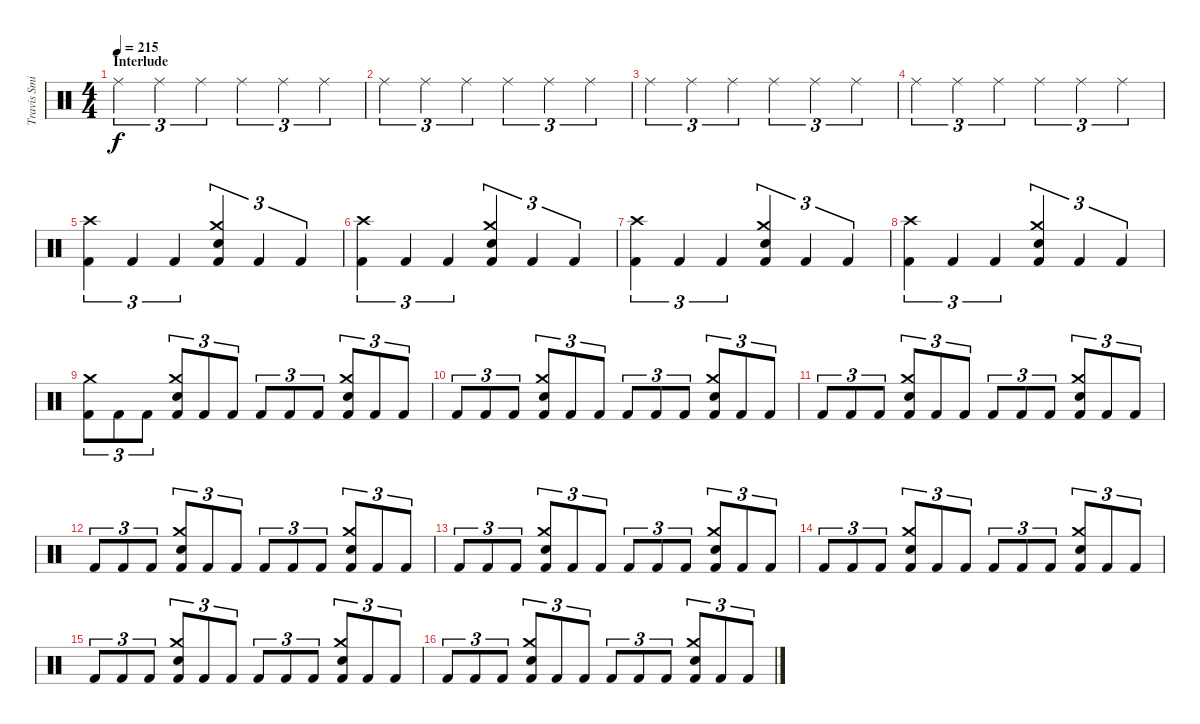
\track ("Travis Smith" "Travis Smi") {instrument percussion}
\staff {score}
\articulation defaults
\ts (4 4)
\section ("" "Interlude")
\tempo 215
\clef neutral
\ks c "Ride (middle)".4{tu (3 2) dy f} "Ride (middle)".4{tu (3 2)} "Ride (middle)".4{tu (3 2)} "Ride (middle)".4{tu (3 2)} "Ride (middle)".4{tu (3 2)} "Ride (middle)".4{tu (3 2)}
|
"Ride (middle)".4{tu (3 2)} "Ride (middle)".4{tu (3 2)} "Ride (middle)".4{tu (3 2)} "Ride (middle)".4{tu (3 2)} "Ride (middle)".4{tu (3 2)} "Ride (middle)".4{tu (3 2)} |
"Ride (middle)".4{tu (3 2)} "Ride (middle)".4{tu (3 2)} "Ride (middle)".4{tu (3 2)} "Ride (middle)".4{tu (3 2)} "Ride (middle)".4{tu (3 2)} "Ride (middle)".4{tu (3 2)} |
"Ride (middle)".4{tu (3 2)} "Ride (middle)".4{tu (3 2)} "Ride (middle)".4{tu (3 2)} "Ride (middle)".4{tu (3 2)} "Ride (middle)".4{tu (3 2)} "Ride (middle)".4{tu (3 2)} |
("Crash high (hit)" "Kick (hit) 2").4{tu (3 2)} "Kick (hit) 2".4{tu (3 2)} "Kick (hit) 2".4{tu (3 2)} ("Crash medium (hit)" "Electric Snare (hit)" "Kick (hit) 2").4{tu (3 2)} "Kick (hit) 2".4{tu (3 2)} "Kick (hit) 2".4{tu (3 2)} |
("Crash high (hit)" "Kick (hit) 2").4{tu (3 2)} "Kick (hit) 2".4{tu (3 2)} "Kick (hit) 2".4{tu (3 2)} ("Crash medium (hit)" "Electric Snare (hit)" "Kick (hit) 2").4{tu (3 2)} "Kick (hit) 2".4{tu (3 2)} "Kick (hit) 2".4{tu (3 2)} |
("Crash high (hit)" "Kick (hit) 2").4{tu (3 2)} "Kick (hit) 2".4{tu (3 2)} "Kick (hit) 2".4{tu (3 2)} ("Crash medium (hit)" "Electric Snare (hit)" "Kick (hit) 2").4{tu (3 2)} "Kick (hit) 2".4{tu (3 2)} "Kick (hit) 2".4{tu (3 2)} |
("Crash high (hit)" "Kick (hit) 2").4{tu (3 2)} "Kick (hit) 2".4{tu (3 2)} "Kick (hit) 2".4{tu (3 2)} ("Crash medium (hit)" "Electric Snare (hit)" "Kick (hit) 2").4{tu (3 2)} "Kick (hit) 2".4{tu (3 2)} "Kick (hit) 2".4{tu (3 2)} |
("Crash medium (hit)" "Kick (hit) 2").8{tu (3 2)} "Kick (hit) 2".8{tu (3 2)} "Kick (hit) 2".8{tu (3 2)} ("Crash medium (hit)" "Electric Snare (hit)" "Kick (hit) 2").8{tu (3 2)} "Kick (hit) 2".8{tu (3 2)} "Kick (hit) 2".8{tu (3 2)} "Kick (hit) 2".8{tu (3 2)} "Kick (hit) 2".8{tu (3 2)} "Kick (hit) 2".8{tu (3 2)} ("Crash medium (hit)" "Electric Snare (hit)" "Kick (hit) 2").8{tu (3 2)} "Kick (hit) 2".8{tu (3 2)} "Kick (hit) 2".8{tu (3 2)} |
"Kick (hit) 2".8{tu (3 2)} "Kick (hit) 2".8{tu (3 2)} "Kick (hit) 2".8{tu (3 2)} ("Crash medium (hit)" "Electric Snare (hit)" "Kick (hit) 2").8{tu (3 2)} "Kick (hit) 2".8{tu (3 2)} "Kick (hit) 2".8{tu (3 2)} "Kick (hit) 2".8{tu (3 2)} "Kick (hit) 2".8{tu (3 2)} "Kick (hit) 2".8{tu (3 2)} ("Crash medium (hit)" "Electric Snare (hit)" "Kick (hit) 2").8{tu (3 2)} "Kick (hit) 2".8{tu (3 2)} "Kick (hit) 2".8{tu (3 2)} |
"Kick (hit) 2".8{tu (3 2)} "Kick (hit) 2".8{tu (3 2)} "Kick (hit) 2".8{tu (3 2)} ("Crash medium (hit)" "Electric Snare (hit)" "Kick (hit) 2").8{tu (3 2)} "Kick (hit) 2".8{tu (3 2)} "Kick (hit) 2".8{tu (3 2)} "Kick (hit) 2".8{tu (3 2)} "Kick (hit) 2".8{tu (3 2)} "Kick (hit) 2".8{tu (3 2)} ("Crash medium (hit)" "Electric Snare (hit)" "Kick (hit) 2").8{tu (3 2)} "Kick (hit) 2".8{tu (3 2)} "Kick (hit) 2".8{tu (3 2)} |
"Kick (hit) 2".8{tu (3 2)} "Kick (hit) 2".8{tu (3 2)} "Kick (hit) 2".8{tu (3 2)} ("Crash medium (hit)" "Electric Snare (hit)" "Kick (hit) 2").8{tu (3 2)} "Kick (hit) 2".8{tu (3 2)} "Kick (hit) 2".8{tu (3 2)} "Kick (hit) 2".8{tu (3 2)} "Kick (hit) 2".8{tu (3 2)} "Kick (hit) 2".8{tu (3 2)} ("Crash medium (hit)" "Electric Snare (hit)" "Kick (hit) 2").8{tu (3 2)} "Kick (hit) 2".8{tu (3 2)} "Kick (hit) 2".8{tu (3 2)} |
"Kick (hit) 2".8{tu (3 2)} "Kick (hit) 2".8{tu (3 2)} "Kick (hit) 2".8{tu (3 2)} ("Crash medium (hit)" "Electric Snare (hit)" "Kick (hit) 2").8{tu (3 2)} "Kick (hit) 2".8{tu (3 2)} "Kick (hit) 2".8{tu (3 2)} "Kick (hit) 2".8{tu (3 2)} "Kick (hit) 2".8{tu (3 2)} "Kick (hit) 2".8{tu (3 2)} ("Crash medium (hit)" "Electric Snare (hit)" "Kick (hit) 2").8{tu (3 2)} "Kick (hit) 2".8{tu (3 2)} "Kick (hit) 2".8{tu (3 2)} |
"Kick (hit) 2".8{tu (3 2)} "Kick (hit) 2".8{tu (3 2)} "Kick (hit) 2".8{tu (3 2)} ("Crash medium (hit)" "Electric Snare (hit)" "Kick (hit) 2").8{tu (3 2)} "Kick (hit) 2".8{tu (3 2)} "Kick (hit) 2".8{tu (3 2)} "Kick (hit) 2".8{tu (3 2)} "Kick (hit) 2".8{tu (3 2)} "Kick (hit) 2".8{tu (3 2)} ("Crash medium (hit)" "Electric Snare (hit)" "Kick (hit) 2").8{tu (3 2)} "Kick (hit) 2".8{tu (3 2)} "Kick (hit) 2".8{tu (3 2)} |
"Kick (hit) 2".8{tu (3 2)} "Kick (hit) 2".8{tu (3 2)} "Kick (hit) 2".8{tu (3 2)} ("Crash medium (hit)" "Electric Snare (hit)" "Kick (hit) 2").8{tu (3 2)} "Kick (hit) 2".8{tu (3 2)} "Kick (hit) 2".8{tu (3 2)} "Kick (hit) 2".8{tu (3 2)} "Kick (hit) 2".8{tu (3 2)} "Kick (hit) 2".8{tu (3 2)} ("Crash medium (hit)" "Electric Snare (hit)" "Kick (hit) 2").8{tu (3 2)} "Kick (hit) 2".8{tu (3 2)} "Kick (hit) 2".8{tu (3 2)} |
"Kick (hit) 2".8{tu (3 2)} "Kick (hit) 2".8{tu (3 2)} "Kick (hit) 2".8{tu (3 2)} ("Crash medium (hit)" "Electric Snare (hit)" "Kick (hit) 2").8{tu (3 2)} "Kick (hit) 2".8{tu (3 2)} "Kick (hit) 2".8{tu (3 2)} "Kick (hit) 2".8{tu (3 2)} "Kick (hit) 2".8{tu (3 2)} "Kick (hit) 2".8{tu (3 2)} ("Crash medium (hit)" "Electric Snare (hit)" "Kick (hit) 2").8{tu (3 2)} "Kick (hit) 2".8{tu (3 2)} "Kick (hit) 2".8{tu (3 2)}
